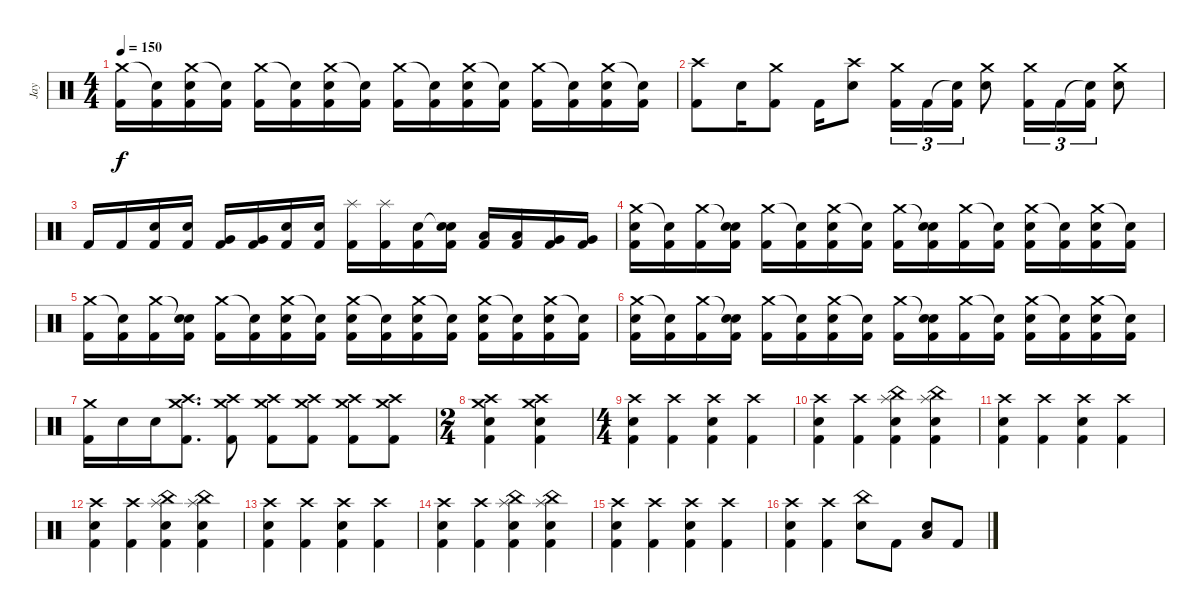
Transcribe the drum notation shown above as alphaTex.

\track ("Jay" "Jay") {instrument percussion}
\staff {score}
\articulation defaults
\ts (4 4)
\tempo 150
\clef neutral
\ks c
("Crash medium (hit)" "Kick (hit) 2").16{dy f} ("Snare (hit)"{t} "Kick (hit) 2").16 ("Crash medium (hit)" "Electric Snare (hit)" "Kick (hit) 2").16 ("Snare (hit)"{t} "Kick (hit) 2").16 ("Crash medium (hit)" "Kick (hit) 2").16 ("Snare (hit)"{t} "Kick (hit) 2").16 ("Crash medium (hit)" "Electric Snare (hit)" "Kick (hit) 2").16 ("Snare (hit)"{t} "Kick (hit) 2").16 ("Crash medium (hit)" "Kick (hit) 2").16 ("Snare (hit)"{t} "Kick (hit) 2").16 ("Crash medium (hit)" "Electric Snare (hit)" "Kick (hit) 2").16 ("Snare (hit)"{t} "Kick (hit) 2").16 ("Crash medium (hit)" "Kick (hit) 2").16 ("Snare (hit)"{t} "Kick (hit) 2").16 ("Crash medium (hit)" "Electric Snare (hit)" "Kick (hit) 2").16 ("Snare (hit)"{t} "Kick (hit) 2").16 |
("Crash high (hit)" "Kick (hit) 2").8 "Electric Snare (hit)".16 ("Crash medium (hit)" "Kick (hit) 2").8 "Kick (hit) 2".16 ("Crash high (hit)" "Electric Snare (hit)").8 ("Crash medium (hit)" "Kick (hit) 2").16{tu (3 2)} "Kick (hit) 2".16{tu (3 2)} ("Snare (hit)"{t} "Kick (hit) 2").16{tu (3 2)} ("Crash medium (hit)" "Electric Snare (hit)").8 ("Crash medium (hit)" "Kick (hit) 2").16{tu (3 2)} "Kick (hit) 2".16{tu (3 2)} ("Snare (hit)"{t} "Kick (hit) 2").16{tu (3 2)} ("Crash medium (hit)" "Electric Snare (hit)").8 |
"Kick (hit) 2".16 "Kick (hit) 2".16 ("Electric Snare (hit)" "Kick (hit) 2").16 ("Electric Snare (hit)" "Kick (hit) 2").16 ("Very Low Tom (hit)" "Kick (hit) 2").16 ("Very Low Tom (hit)" "Kick (hit) 2").16 ("Electric Snare (hit)" "Kick (hit) 2").16 ("Electric Snare (hit)" "Kick (hit) 2").16 ("Splash (hit)" "Kick (hit) 2").16 ("Splash (hit)" "Kick (hit) 2").16 ("Electric Snare (hit)" "Kick (hit) 2").16 ("Snare (hit)"{t} "Electric Snare (hit)" "Kick (hit) 2").16 ("Low Tom (hit)" "Kick (hit) 2").16 ("Low Tom (hit)" "Kick (hit) 2").16 ("Very Low Tom (hit)" "Kick (hit) 2").16 ("Very Low Tom (hit)" "Kick (hit) 2").16 |
("Crash medium (hit)" "Electric Snare (hit)" "Kick (hit) 2").16 ("Snare (hit)"{t} "Kick (hit) 2").16 ("Crash medium (hit)" "Kick (hit) 2").16 ("Snare (hit)"{t} "Electric Snare (hit)" "Kick (hit) 2").16 ("Crash medium (hit)" "Kick (hit) 2").16 ("Snare (hit)"{t} "Kick (hit) 2").16 ("Crash medium (hit)" "Electric Snare (hit)" "Kick (hit) 2").16 ("Snare (hit)"{t} "Kick (hit) 2").16 ("Crash medium (hit)" "Kick (hit) 2").16 ("Snare (hit)"{t} "Electric Snare (hit)" "Kick (hit) 2").16 ("Crash medium (hit)" "Kick (hit) 2").16 ("Snare (hit)"{t} "Kick (hit) 2").16 ("Crash medium (hit)" "Electric Snare (hit)" "Kick (hit) 2").16 ("Snare (hit)"{t} "Kick (hit) 2").16 ("Crash medium (hit)" "Electric Snare (hit)" "Kick (hit) 2").16 ("Snare (hit)"{t} "Kick (hit) 2").16 |
("Crash medium (hit)" "Kick (hit) 2").16 ("Snare (hit)"{t} "Kick (hit) 2").16 ("Crash medium (hit)" "Kick (hit) 2").16 ("Snare (hit)"{t} "Electric Snare (hit)" "Kick (hit) 2").16 ("Crash medium (hit)" "Kick (hit) 2").16 ("Snare (hit)"{t} "Kick (hit) 2").16 ("Crash medium (hit)" "Electric Snare (hit)" "Kick (hit) 2").16 ("Snare (hit)"{t} "Kick (hit) 2").16 ("Crash medium (hit)" "Electric Snare (hit)" "Kick (hit) 2").16 ("Snare (hit)"{t} "Kick (hit) 2").16 ("Crash medium (hit)" "Electric Snare (hit)" "Kick (hit) 2").16 ("Snare (hit)"{t} "Kick (hit) 2").16 ("Crash medium (hit)" "Electric Snare (hit)" "Kick (hit) 2").16 ("Snare (hit)"{t} "Kick (hit) 2").16 ("Crash medium (hit)" "Electric Snare (hit)" "Kick (hit) 2").16 ("Snare (hit)"{t} "Kick (hit) 2").16 |
("Crash medium (hit)" "Electric Snare (hit)" "Kick (hit) 2").16 ("Snare (hit)"{t} "Kick (hit) 2").16 ("Crash medium (hit)" "Kick (hit) 2").16 ("Snare (hit)"{t} "Electric Snare (hit)" "Kick (hit) 2").16 ("Crash medium (hit)" "Kick (hit) 2").16 ("Snare (hit)"{t} "Kick (hit) 2").16 ("Crash medium (hit)" "Electric Snare (hit)" "Kick (hit) 2").16 ("Snare (hit)"{t} "Kick (hit) 2").16 ("Crash medium (hit)" "Kick (hit) 2").16 ("Snare (hit)"{t} "Electric Snare (hit)" "Kick (hit) 2").16 ("Crash medium (hit)" "Kick (hit) 2").16 ("Snare (hit)"{t} "Kick (hit) 2").16 ("Crash medium (hit)" "Electric Snare (hit)" "Kick (hit) 2").16 ("Snare (hit)"{t} "Kick (hit) 2").16 ("Crash medium (hit)" "Electric Snare (hit)" "Kick (hit) 2").16 ("Snare (hit)"{t} "Kick (hit) 2").16 |
("Crash medium (hit)" "Kick (hit) 2").16 "Electric Snare (hit)".16 "Electric Snare (hit)".16 ("Crash high (hit)" "Crash medium (hit)" "Kick (hit) 2").8{d} ("Crash high (hit)" "Crash medium (hit)" "Kick (hit) 2").8 ("Crash high (hit)" "Crash medium (hit)" "Kick (hit) 2").8 ("Crash high (hit)" "Crash medium (hit)" "Kick (hit) 2").8 ("Crash high (hit)" "Crash medium (hit)" "Kick (hit) 2").8 ("Crash high (hit)" "Crash medium (hit)" "Kick (hit) 2").8 |
\ts (2 4)
("Crash high (hit)" "Crash medium (hit)" "Electric Snare (hit)" "Kick (hit) 2").4 ("Crash high (hit)" "Crash medium (hit)" "Electric Snare (hit)" "Kick (hit) 2").4 |
\ts (4 4)
("Crash high (hit)" "Electric Snare (hit)" "Kick (hit) 2").4 ("Crash high (hit)" "Kick (hit) 2").4 ("Crash high (hit)" "Electric Snare (hit)" "Kick (hit) 2").4 ("Crash high (hit)" "Kick (hit) 2").4 |
("Crash high (hit)" "Electric Snare (hit)" "Kick (hit) 2").4 ("Crash high (hit)" "Kick (hit) 2").4 ("China (hit)" "Splash (hit)" "Electric Snare (hit)" "Kick (hit) 2").4 ("China (hit)" "Splash (hit)" "Electric Snare (hit)" "Kick (hit) 2").4 |
("Crash high (hit)" "Electric Snare (hit)" "Kick (hit) 2").4 ("Crash high (hit)" "Kick (hit) 2").4 ("Crash high (hit)" "Electric Snare (hit)" "Kick (hit) 2").4 ("Crash high (hit)" "Kick (hit) 2").4 |
("Crash high (hit)" "Electric Snare (hit)" "Kick (hit) 2").4 ("Crash high (hit)" "Kick (hit) 2").4 ("China (hit)" "Splash (hit)" "Electric Snare (hit)" "Kick (hit) 2").4 ("China (hit)" "Splash (hit)" "Electric Snare (hit)" "Kick (hit) 2").4 |
("Crash high (hit)" "Electric Snare (hit)" "Kick (hit) 2").4 ("Crash high (hit)" "Kick (hit) 2").4 ("Crash high (hit)" "Electric Snare (hit)" "Kick (hit) 2").4 ("Crash high (hit)" "Kick (hit) 2").4 |
("Crash high (hit)" "Electric Snare (hit)" "Kick (hit) 2").4 ("Crash high (hit)" "Kick (hit) 2").4 ("China (hit)" "Splash (hit)" "Electric Snare (hit)" "Kick (hit) 2").4 ("China (hit)" "Splash (hit)" "Electric Snare (hit)" "Kick (hit) 2").4 |
("Crash high (hit)" "Electric Snare (hit)" "Kick (hit) 2").4 ("Crash high (hit)" "Kick (hit) 2").4 ("Crash high (hit)" "Electric Snare (hit)" "Kick (hit) 2").4 ("Crash high (hit)" "Kick (hit) 2").4 |
("Crash high (hit)" "Electric Snare (hit)" "Kick (hit) 2").4 ("Crash high (hit)" "Kick (hit) 2").4 ("China (hit)" "Electric Snare (hit)").8 "Kick (hit) 2".8 ("Electric Snare (hit)" "Low Floor Tom (hit)").8 "Kick (hit) 2".8
